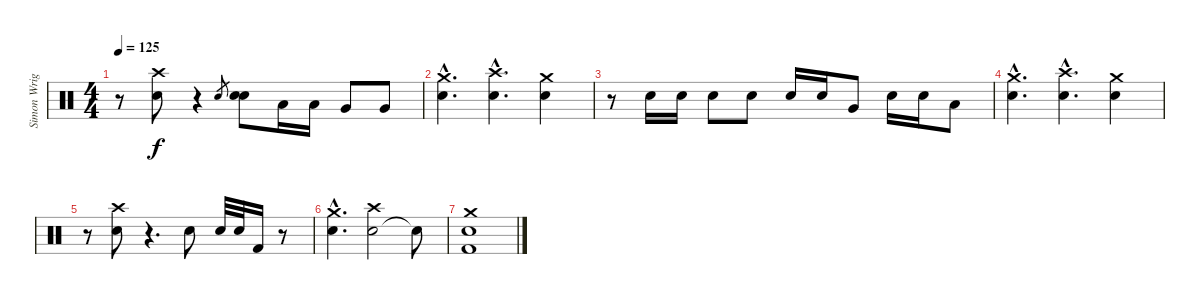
\track ("Simon Wright" "Simon Wrig") {instrument percussion}
\staff {score}
\articulation defaults
\ts (4 4)
\tempo 125
\clef neutral
\ks c
r.8{dy f} ("Snare (hit) 2" "Crash high (hit)").8 r.4 "Snare (hit) 2".8{gr} ("Snare (hit) 2" "Snare (hit) 2").8 "Low Tom (hit)".16 "Low Tom (hit)".16 "Very Low Tom (hit)".8 "Very Low Tom (hit)".8 |
("Snare (hit) 2"{hac} "Crash medium (hit)"{hac}).4{d} ("Snare (hit) 2"{hac} "Crash high (hit)"{hac}).4{d} ("Snare (hit) 2" "Crash medium (hit)").4 |
r.8 "Snare (hit) 2".16 "Snare (hit) 2".16 "Snare (hit) 2".8 "Snare (hit) 2".8 "Snare (hit) 2".16 "Snare (hit) 2".16 "Very Low Tom (hit)".8 "Snare (hit) 2".16 "Snare (hit) 2".16 "Low Floor Tom (hit)".8 |
("Snare (hit) 2"{hac} "Crash medium (hit)"{hac}).4{d} ("Snare (hit) 2"{hac} "Crash high (hit)"{hac}).4{d} ("Snare (hit) 2" "Crash medium (hit)").4 |
r.8 ("Snare (hit) 2" "Crash high (hit)").8 r.4{d} "Snare (hit) 2".8 "Snare (hit) 2".32 "Snare (hit) 2".32 "Kick (hit) 2".16 r.8 |
("Snare (hit) 2"{hac} "Crash medium (hit)"{hac}).4{d} ("Snare (hit) 2" "Crash high (hit)").2 "Snare (hit)"{t}.8 |
("Kick (hit) 2" "Snare (hit) 2" "Crash medium (hit)").1
